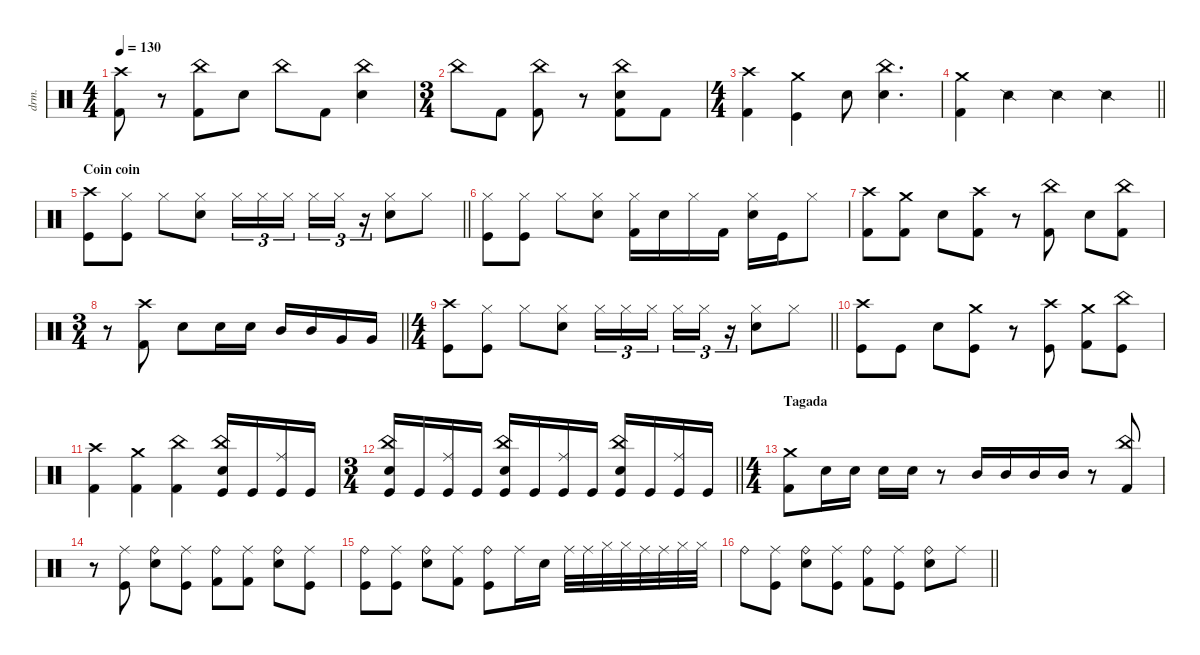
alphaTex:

\defaultSystemsLayout 4
\hideDynamics
\bracketExtendMode nobrackets
\otherSystemsTrackNameOrientation horizontal
\track ("Manouche" "drm.") {instrument percussion}
\staff {score}
\articulation defaults
\ts (4 4)
\tempo 130
\clef neutral
\ks c
("Crash high (hit)" "Kick (hit) 2").8{dy f beam Down} r.8{beam Down} ("China (hit)" "Kick (hit) 2").8{beam Down} "Snare (hit) 2".8{beam Down} "China (hit)".8{beam Down} "Kick (hit) 2".8{beam Down} ("China (hit)" "Snare (hit) 2").4{beam Down} |
\ts (3 4)
\beaming (8 2 2 2 2)
"China (hit)".8{beam Down} "Kick (hit) 2".8{beam Down} ("China (hit)" "Kick (hit) 2").8{beam Down} r.8{beam Down} ("China (hit)" "Snare (hit) 2" "Kick (hit) 2").8{beam Down} "Kick (hit) 2".8{beam Down} |
\ts (4 4)
\beaming (8 2 2 2 2)
("Kick (hit) 2" "Crash high (hit)").4{beam Down} ("Crash medium (hit)" "Kick (hit)").4{beam Down} "Snare (hit) 2".8{beam Down} ("China (hit)" "Snare (hit) 2").4{d beam Down} |
\barLineRight lightlight
("Kick (hit) 2" "Crash medium (hit)").4{beam Down} "Snare (side stick) 2".4{beam Down} "Snare (side stick) 2".4{beam Down} "Snare (side stick) 2".4{beam Down} |
\section ("" "Coin coin")
\barLineRight lightlight
("Crash high (hit)" "Kick (hit)").8{beam Down} ("Hi-Hat (closed)" "Kick (hit)").8{beam Down} "Hi-Hat (closed)".8{beam Down} ("Hi-Hat (closed)" "Snare (hit) 2").8{beam Down} "Hi-Hat (closed)".16{tu (3 2) dy mp beam Down} "Hi-Hat (closed)".16{tu (3 2) beam Down} "Hi-Hat (closed)".16{tu (3 2) beam Down} "Hi-Hat (closed)".16{tu (3 2) beam Down} "Hi-Hat (closed)".16{tu (3 2) beam Down} r.16{tu (3 2) beam Down} ("Snare (hit) 2" "Hi-Hat (closed)").8{dy f beam Down} "Hi-Hat (closed)".8{beam Down} |
("Hi-Hat (closed)" "Kick (hit)").8{beam Down} ("Hi-Hat (closed)" "Kick (hit)").8{beam Down} "Hi-Hat (closed)".8{beam Down} ("Hi-Hat (closed)" "Snare (hit) 2").8{beam Down} ("Hi-Hat (closed)" "Kick (hit) 2").16{beam Down} "Snare (hit) 2".16{beam Down} "Hi-Hat (closed)".16{beam Down} "Kick (hit) 2".16{beam Down} ("Hi-Hat (closed)" "Snare (hit) 2").16{beam Down} "Kick (hit)".16{beam Down} "Hi-Hat (closed)".8{beam Down} |
("Crash high (hit)" "Kick (hit) 2").8{beam Down} ("Crash medium (hit)" "Kick (hit) 2").8{beam Down} "Snare (hit) 2".8{beam Down} ("Kick (hit) 2" "Crash high (hit)").8{beam Down} r.8{beam Down} ("Kick (hit) 2" "China (hit)").8{beam Down} "Snare (hit) 2".8{beam Down} ("Kick (hit) 2" "China (hit)").8{beam Down} |
\ts (3 4)
\beaming (8 2 2 2)
\barLineRight lightlight
r.8{beam Down} ("Crash high (hit)" "Kick (hit) 2").8{beam Down} "Snare (hit) 2".8{beam Down} "Snare (hit) 2".16{beam Down} "Snare (hit) 2".16{beam Down} "Mid Tom (hit)".16{beam Up} "Mid Tom (hit)".16{beam Up} "Very Low Tom (hit)".16{beam Up} "Very Low Tom (hit)".16{beam Up} |
\ts (4 4)
\beaming (8 2 2 2 2)
\barLineRight lightlight
("Crash high (hit)" "Kick (hit)").8{beam Down} ("Hi-Hat (closed)" "Kick (hit)").8{beam Down} "Hi-Hat (closed)".8{beam Down} ("Hi-Hat (closed)" "Snare (hit) 2").8{beam Down} "Hi-Hat (closed)".16{tu (3 2) dy mf beam Down} "Hi-Hat (closed)".16{tu (3 2) dy mp beam Down} "Hi-Hat (closed)".16{tu (3 2) dy mf beam Down} "Hi-Hat (closed)".16{tu (3 2) beam Down} "Hi-Hat (closed)".16{tu (3 2) dy mp beam Down} r.16{tu (3 2) beam Down} ("Snare (hit) 2" "Hi-Hat (closed)").8{dy f beam Down} "Hi-Hat (closed)".8{beam Down} |
("Crash high (hit)" "Kick (hit)").8{beam Down} "Kick (hit)".8{beam Down} "Snare (hit) 2".8{beam Down} ("Crash medium (hit)" "Kick (hit)").8{beam Down} r.8{beam Down} ("Crash high (hit)" "Kick (hit)").8{beam Down} ("Kick (hit) 2" "Crash medium (hit)").8{beam Down} ("China (hit)" "Kick (hit)").8{beam Down} |
("Kick (hit) 2" "Crash high (hit)").4{beam Down} ("Crash medium (hit)" "Kick (hit) 2").4{beam Down} ("China (hit)" "Kick (hit) 2").4{beam Down} ("China (hit)" "Snare (hit) 2" "Kick (hit)").16{beam Up} "Kick (hit)".16{beam Up} ("Ride (middle)" "Kick (hit)").16{beam Up} "Kick (hit)".16{beam Up} |
\ts (3 4)
\beaming (8 2 2 2)
\barLineRight lightlight
("China (hit)" "Snare (hit) 2" "Kick (hit)").16{beam Up} "Kick (hit)".16{beam Up} ("Ride (middle)" "Kick (hit)").16{beam Up} "Kick (hit)".16{beam Up} ("China (hit)" "Snare (hit) 2" "Kick (hit)").16{beam Up} "Kick (hit)".16{beam Up} ("Ride (middle)" "Kick (hit)").16{beam Up} "Kick (hit)".16{beam Up} ("China (hit)" "Snare (hit) 2" "Kick (hit)").16{beam Up} "Kick (hit)".16{beam Up} ("Kick (hit)" "Ride (middle)").16{beam Up} "Kick (hit)".16{beam Up} |
\ts (4 4)
\beaming (8 2 2 2 2)
\section ("" "Tagada")
("Crash medium (hit)" "Kick (hit) 2").8{beam Down} "Snare (hit) 2".16{beam Down} "Snare (hit) 2".16{beam Down} "Snare (hit) 2".16{beam Down} "Snare (hit) 2".16{beam Down} r.8{beam Down} "Mid Tom (hit)".16{beam Up} "Mid Tom (hit)".16{beam Up} "Mid Tom (hit)".16{beam Up} "Mid Tom (hit)".16{beam Up} r.8{beam Up} ("China (hit)" "Kick (hit) 2").8{beam Down} |
r.8{beam Down} ("Ride (middle)" "Kick (hit)").8{dy mp beam Down} ("Snare (hit) 2" "Ride (bell)").8{dy f beam Down} ("Kick (hit)" "Ride (middle)").8{beam Down} ("Ride (bell)" "Kick (hit) 2").8{beam Down} ("Ride (middle)" "Kick (hit) 2").8{dy mp beam Down} ("Ride (bell)" "Snare (hit) 2").8{dy f beam Down} ("Ride (middle)" "Kick (hit)").8{dy mp beam Down} |
("Kick (hit)" "Ride (bell)").8{dy f beam Down} ("Kick (hit)" "Ride (middle)").8{beam Down} ("Ride (bell)" "Snare (hit) 2").8{beam Down} ("Ride (middle)" "Kick (hit) 2").8{dy mp beam Down} ("Ride (bell)" "Kick (hit)").8{dy f beam Down} "Ride (middle)".16{dy mp beam Down} "Snare (hit) 2".16{dy f beam Down} "Ride (middle)".32{beam Down} "Ride (middle)".32{beam Down} "Hi-Hat (closed)".32{beam Down} "Hi-Hat (closed)".32{beam Down} "Ride (middle)".32{beam Down} "Ride (middle)".32{beam Down} "Hi-Hat (closed)".32{beam Down} "Hi-Hat (closed)".32{beam Down} |
\barLineRight lightlight "Ride (bell)".8{beam Down}
("Kick (hit)" "Ride (middle)").8{beam Down} ("Snare (hit) 2" "Ride (bell)").8{beam Down} ("Ride (middle)" "Kick (hit)").8{dy mp beam Down} ("Ride (bell)" "Kick (hit) 2").8{dy f beam Down} ("Ride (middle)" "Kick (hit)").8{dy mp beam Down} ("Snare (hit) 2" "Ride (bell)").8{dy f beam Down} "Ride (middle)".8{dy mp beam Down}
